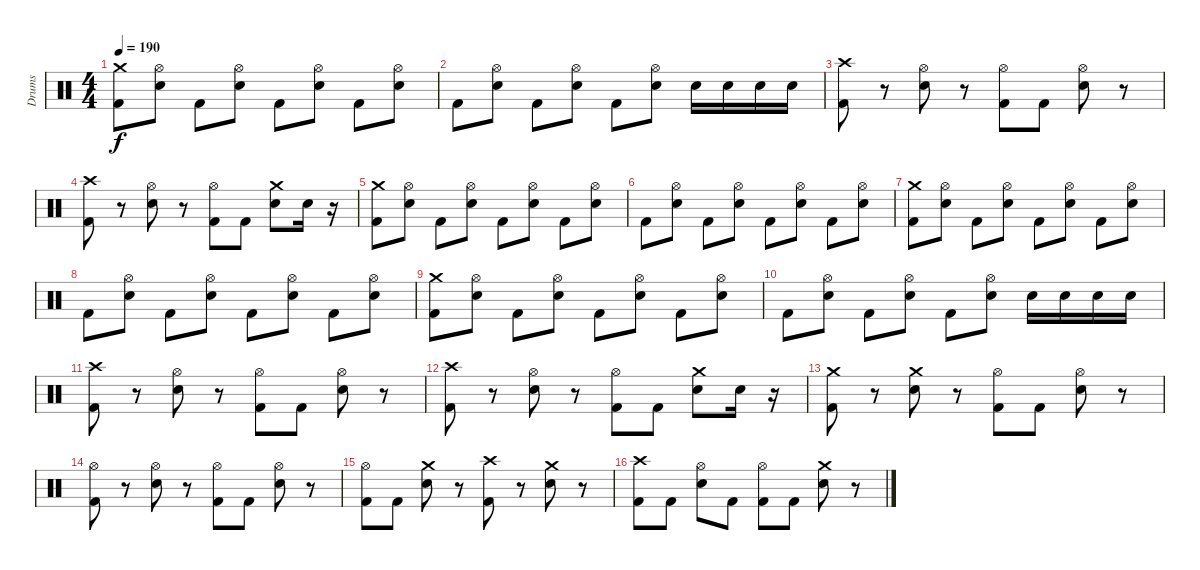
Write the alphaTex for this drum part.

\track ("Drums" "Drums") {instrument percussion}
\staff {score}
\articulation defaults
\ts (4 4)
\tempo 190
\clef neutral
\ks c
("Kick (hit) 2" "Crash medium (hit)").8{dy f} ("Hi-Hat (open)" "Electric Snare (hit)").8 "Kick (hit) 2".8 ("Hi-Hat (open)" "Electric Snare (hit)").8 "Kick (hit) 2".8 ("Hi-Hat (open)" "Electric Snare (hit)").8 "Kick (hit) 2".8 ("Hi-Hat (open)" "Electric Snare (hit)").8 |
"Kick (hit) 2".8 ("Hi-Hat (open)" "Electric Snare (hit)").8 "Kick (hit) 2".8 ("Hi-Hat (open)" "Electric Snare (hit)").8 "Kick (hit) 2".8 ("Hi-Hat (open)" "Electric Snare (hit)").8 "Electric Snare (hit)".16 "Electric Snare (hit)".16 "Electric Snare (hit)".16 "Electric Snare (hit)".16 |
("Kick (hit) 2" "Crash high (hit)").8 r.8 ("Electric Snare (hit)" "Hi-Hat (open)").8 r.8 ("Kick (hit) 2" "Hi-Hat (open)").8 "Kick (hit) 2".8 ("Electric Snare (hit)" "Hi-Hat (open)").8 r.8 |
("Kick (hit) 2" "Crash high (hit)").8 r.8 ("Electric Snare (hit)" "Hi-Hat (open)").8 r.8 ("Kick (hit) 2" "Hi-Hat (open)").8 "Kick (hit) 2".8 ("Electric Snare (hit)" "Crash medium (hit)").8 "Electric Snare (hit)".16 r.16 |
("Kick (hit) 2" "Crash medium (hit)").8 ("Hi-Hat (open)" "Electric Snare (hit)").8 "Kick (hit) 2".8 ("Hi-Hat (open)" "Electric Snare (hit)").8 "Kick (hit) 2".8 ("Hi-Hat (open)" "Electric Snare (hit)").8 "Kick (hit) 2".8 ("Hi-Hat (open)" "Electric Snare (hit)").8 |
"Kick (hit) 2".8 ("Hi-Hat (open)" "Electric Snare (hit)").8 "Kick (hit) 2".8 ("Hi-Hat (open)" "Electric Snare (hit)").8 "Kick (hit) 2".8 ("Hi-Hat (open)" "Electric Snare (hit)").8 "Kick (hit) 2".8 ("Hi-Hat (open)" "Electric Snare (hit)").8 |
("Kick (hit) 2" "Crash medium (hit)").8 ("Hi-Hat (open)" "Electric Snare (hit)").8 "Kick (hit) 2".8 ("Hi-Hat (open)" "Electric Snare (hit)").8 "Kick (hit) 2".8 ("Hi-Hat (open)" "Electric Snare (hit)").8 "Kick (hit) 2".8 ("Hi-Hat (open)" "Electric Snare (hit)").8 |
"Kick (hit) 2".8 ("Hi-Hat (open)" "Electric Snare (hit)").8 "Kick (hit) 2".8 ("Hi-Hat (open)" "Electric Snare (hit)").8 "Kick (hit) 2".8 ("Hi-Hat (open)" "Electric Snare (hit)").8 "Kick (hit) 2".8 ("Hi-Hat (open)" "Electric Snare (hit)").8 |
("Kick (hit) 2" "Crash medium (hit)").8 ("Hi-Hat (open)" "Electric Snare (hit)").8 "Kick (hit) 2".8 ("Hi-Hat (open)" "Electric Snare (hit)").8 "Kick (hit) 2".8 ("Hi-Hat (open)" "Electric Snare (hit)").8 "Kick (hit) 2".8 ("Hi-Hat (open)" "Electric Snare (hit)").8 |
"Kick (hit) 2".8 ("Hi-Hat (open)" "Electric Snare (hit)").8 "Kick (hit) 2".8 ("Hi-Hat (open)" "Electric Snare (hit)").8 "Kick (hit) 2".8 ("Hi-Hat (open)" "Electric Snare (hit)").8 "Electric Snare (hit)".16 "Electric Snare (hit)".16 "Electric Snare (hit)".16 "Electric Snare (hit)".16 |
("Kick (hit) 2" "Crash high (hit)").8 r.8 ("Electric Snare (hit)" "Hi-Hat (open)").8 r.8 ("Kick (hit) 2" "Hi-Hat (open)").8 "Kick (hit) 2".8 ("Electric Snare (hit)" "Hi-Hat (open)").8 r.8 |
("Kick (hit) 2" "Crash high (hit)").8 r.8 ("Electric Snare (hit)" "Hi-Hat (open)").8 r.8 ("Kick (hit) 2" "Hi-Hat (open)").8 "Kick (hit) 2".8 ("Electric Snare (hit)" "Crash medium (hit)").8 "Electric Snare (hit)".16 r.16 |
("Kick (hit) 2" "Crash medium (hit)").8 r.8 ("Electric Snare (hit)" "Crash medium (hit)").8 r.8 ("Hi-Hat (open)" "Kick (hit) 2").8 "Kick (hit) 2".8 ("Hi-Hat (open)" "Electric Snare (hit)").8 r.8 |
("Hi-Hat (open)" "Kick (hit) 2").8 r.8 ("Hi-Hat (open)" "Electric Snare (hit)").8 r.8 ("Hi-Hat (open)" "Kick (hit) 2").8 "Kick (hit) 2".8 ("Hi-Hat (open)" "Electric Snare (hit)").8 r.8 |
("Kick (hit) 2" "Hi-Hat (open)").8 "Kick (hit) 2".8 ("Electric Snare (hit)" "Crash medium (hit)").8 r.8 ("Kick (hit) 2" "Crash high (hit)").8 r.8 ("Electric Snare (hit)" "Crash medium (hit)").8 r.8 |
("Kick (hit) 2" "Crash high (hit)").8 "Kick (hit) 2".8 ("Electric Snare (hit)" "Hi-Hat (open)").8 "Kick (hit) 2".8 ("Kick (hit) 2" "Hi-Hat (open)").8 "Kick (hit) 2".8 ("Electric Snare (hit)" "Crash medium (hit)").8 r.8
